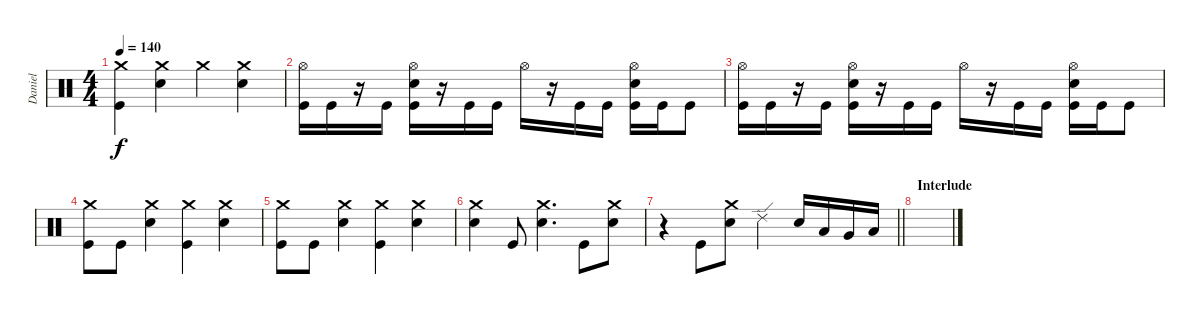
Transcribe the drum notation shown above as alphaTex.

\track ("Daniel" "Daniel") {instrument percussion}
\staff {score}
\articulation defaults
\ts (4 4)
\tempo 140
\clef neutral
\ks c
("Crash medium (hit)" "Kick (hit)").4{dy f} ("Crash medium (hit)" "Electric Snare (hit)").4 "Crash medium (hit)".4 ("Crash medium (hit)" "Electric Snare (hit)").4 |
("Hi-Hat (open)" "Kick (hit)").16 "Kick (hit)".16 r.16 "Kick (hit)".16 ("Hi-Hat (open)" "Electric Snare (hit)" "Kick (hit)").16 r.16 "Kick (hit)".16 "Kick (hit)".16 "Hi-Hat (open)".16 r.16 "Kick (hit)".16 "Kick (hit)".16 ("Hi-Hat (open)" "Electric Snare (hit)" "Kick (hit)").16 "Kick (hit)".16 "Kick (hit)".8 |
("Hi-Hat (open)" "Kick (hit)").16 "Kick (hit)".16 r.16 "Kick (hit)".16 ("Hi-Hat (open)" "Electric Snare (hit)" "Kick (hit)").16 r.16 "Kick (hit)".16 "Kick (hit)".16 "Hi-Hat (open)".16 r.16 "Kick (hit)".16 "Kick (hit)".16 ("Hi-Hat (open)" "Electric Snare (hit)" "Kick (hit)").16 "Kick (hit)".16 "Kick (hit)".8 |
("Crash medium (hit)" "Kick (hit)").8 "Kick (hit)".8 ("Crash medium (hit)" "Electric Snare (hit)").4 ("Crash medium (hit)" "Kick (hit)").4 ("Crash medium (hit)" "Electric Snare (hit)").4 |
("Crash medium (hit)" "Kick (hit)").8 "Kick (hit)".8 ("Crash medium (hit)" "Electric Snare (hit)").4 ("Crash medium (hit)" "Kick (hit)").4 ("Crash medium (hit)" "Electric Snare (hit)").4 |
("Crash medium (hit)" "Electric Snare (hit)").4 "Kick (hit)".8 ("Crash medium (hit)" "Electric Snare (hit)").4{d} "Kick (hit)".8 ("Crash medium (hit)" "Electric Snare (hit)").8 |
\barLineRight lightlight
r.4 "Kick (hit)".8 ("Crash medium (hit)" "Electric Snare (hit)").8 "Ride (edge) 2".4 "Electric Snare (hit)".16 "Low Tom (hit)".16 "Very Low Tom (hit)".16 "Low Floor Tom (hit)".16 |
\section ("" "Interlude")
